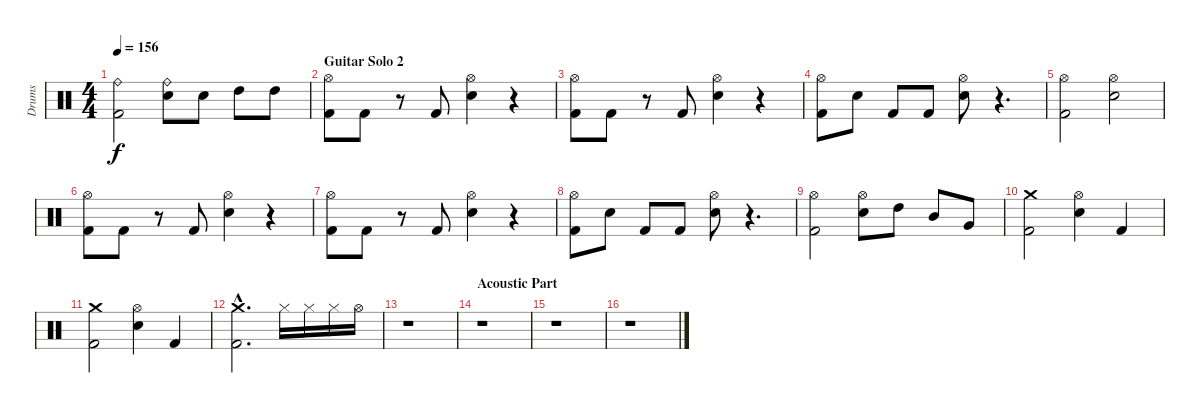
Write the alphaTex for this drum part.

\track ("Drums" "Drums") {instrument percussion}
\staff {score}
\articulation defaults
\ts (4 4)
\tempo 156
\clef neutral
\ks c
("Kick (hit) 2" "Ride (bell)").2{dy f} ("Electric Snare (hit)" "Ride (bell)").8 "Electric Snare (hit)".8 "High Tom (hit)".8 "High Tom (hit)".8 |
\section ("" "Guitar Solo 2")
("Kick (hit) 2" "Hi-Hat (open)").8 "Kick (hit) 2".8 r.8 "Kick (hit) 2".8 ("Electric Snare (hit)" "Hi-Hat (open)").4 r.4 |
("Kick (hit) 2" "Hi-Hat (open)").8 "Kick (hit) 2".8 r.8 "Kick (hit) 2".8 ("Electric Snare (hit)" "Hi-Hat (open)").4 r.4 |
("Kick (hit) 2" "Hi-Hat (open)").8 "Electric Snare (hit)".8 "Kick (hit) 2".8 "Kick (hit) 2".8 ("Electric Snare (hit)" "Hi-Hat (open)").8 r.4{d} |
("Kick (hit) 2" "Hi-Hat (open)").2 ("Electric Snare (hit)" "Hi-Hat (open)").2 |
("Kick (hit) 2" "Hi-Hat (open)").8 "Kick (hit) 2".8 r.8 "Kick (hit) 2".8 ("Electric Snare (hit)" "Hi-Hat (open)").4 r.4 |
("Kick (hit) 2" "Hi-Hat (open)").8 "Kick (hit) 2".8 r.8 "Kick (hit) 2".8 ("Electric Snare (hit)" "Hi-Hat (open)").4 r.4 |
("Kick (hit) 2" "Hi-Hat (open)").8 "Electric Snare (hit)".8 "Kick (hit) 2".8 "Kick (hit) 2".8 ("Electric Snare (hit)" "Hi-Hat (open)").8 r.4{d} |
("Kick (hit) 2" "Hi-Hat (open)").2 ("Electric Snare (hit)" "Hi-Hat (open)").8 "High Tom (hit)".8 "Mid Tom (hit)".8 "Very Low Tom (hit)".8 |
("Kick (hit) 2" "Crash medium (hit)").2 ("Electric Snare (hit)" "Hi-Hat (open)").4 "Kick (hit) 2".4 |
("Kick (hit) 2" "Crash medium (hit)").2 ("Electric Snare (hit)" "Hi-Hat (open)").4 "Kick (hit) 2".4 |
("Kick (hit) 2"{hac} "Crash medium (hit)"{hac}).2{d} "Hi-Hat (closed)".16 "Hi-Hat (closed)".16 "Hi-Hat (closed)".16 "Hi-Hat (open)".16 |
r.1 |
\section ("" "Acoustic Part")
r.1 |
r.1 |
r.1
